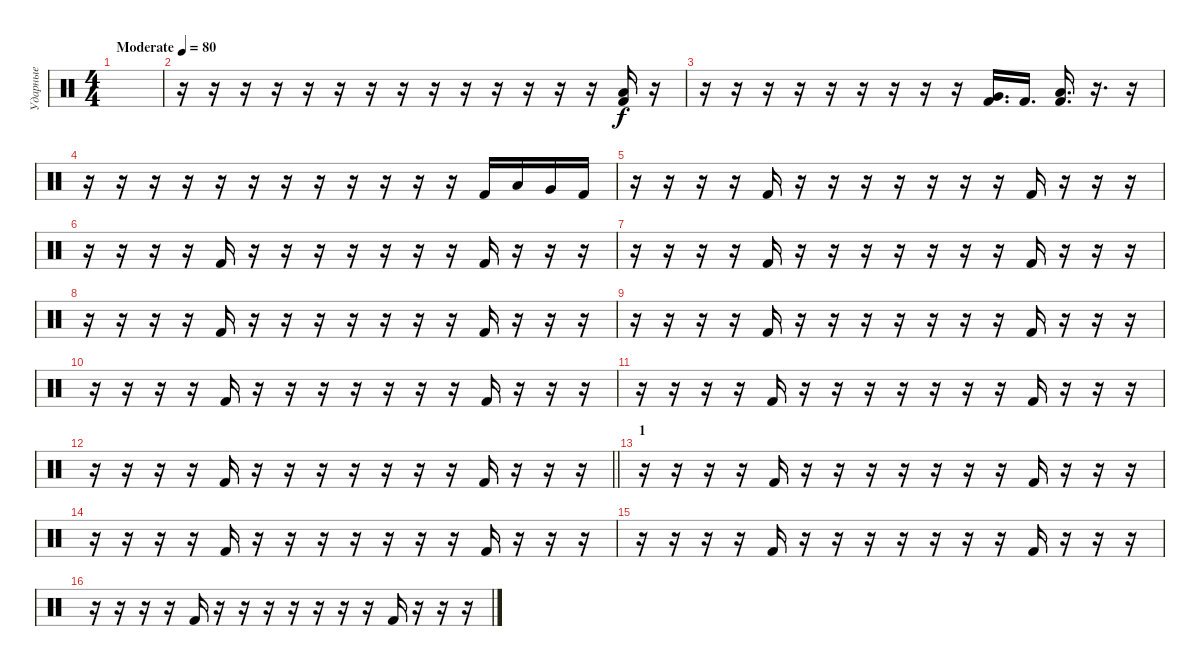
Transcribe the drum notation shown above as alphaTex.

\track ("Ударные" "Ударные") {instrument percussion}
\staff {score}
\articulation defaults
\ts (4 4)
\tempo (80 "Moderate")
\clef neutral
\ks c
|
r.16 r.16 r.16 r.16 r.16 r.16 r.16 r.16 r.16 r.16 r.16 r.16 r.16 r.16 ("Kick (hit) 2" "Low Floor Tom (hit)").16 r.16 |
r.16 r.16 r.16 r.16 r.16 r.16 r.16 r.16 r.16 ("Kick (hit) 2" "Very Low Tom (hit)").16{d} "Kick (hit) 2".16{d} ("Kick (hit) 2" "Low Floor Tom (hit)").16{d} r.16{d} r.16 |
r.16 r.16 r.16 r.16 r.16 r.16 r.16 r.16 r.16 r.16 r.16 r.16 "Kick (hit) 2".16 "Low Floor Tom (hit)".16 "Very Low Tom (hit)".16 "Kick (hit) 2".16 |
r.16 r.16 r.16 r.16 "Kick (hit) 2".16 r.16 r.16 r.16 r.16 r.16 r.16 r.16 "Kick (hit) 2".16 r.16 r.16 r.16 |
r.16 r.16 r.16 r.16 "Kick (hit) 2".16 r.16 r.16 r.16 r.16 r.16 r.16 r.16 "Kick (hit) 2".16 r.16 r.16 r.16 |
r.16 r.16 r.16 r.16 "Kick (hit) 2".16 r.16 r.16 r.16 r.16 r.16 r.16 r.16 "Kick (hit) 2".16 r.16 r.16 r.16 |
r.16 r.16 r.16 r.16 "Kick (hit) 2".16 r.16 r.16 r.16 r.16 r.16 r.16 r.16 "Kick (hit) 2".16 r.16 r.16 r.16 |
r.16 r.16 r.16 r.16 "Kick (hit) 2".16 r.16 r.16 r.16 r.16 r.16 r.16 r.16 "Kick (hit) 2".16 r.16 r.16 r.16 |
r.16 r.16 r.16 r.16 "Kick (hit) 2".16 r.16 r.16 r.16 r.16 r.16 r.16 r.16 "Kick (hit) 2".16 r.16 r.16 r.16 |
r.16 r.16 r.16 r.16 "Kick (hit) 2".16 r.16 r.16 r.16 r.16 r.16 r.16 r.16 "Kick (hit) 2".16 r.16 r.16 r.16 |
\barLineRight lightlight
r.16 r.16 r.16 r.16 "Kick (hit) 2".16 r.16 r.16 r.16 r.16 r.16 r.16 r.16 "Kick (hit) 2".16 r.16 r.16 r.16 |
\section ("" "1")
r.16 r.16 r.16 r.16 "Kick (hit) 2".16 r.16 r.16 r.16 r.16 r.16 r.16 r.16 "Kick (hit) 2".16 r.16 r.16 r.16 |
r.16 r.16 r.16 r.16 "Kick (hit) 2".16 r.16 r.16 r.16 r.16 r.16 r.16 r.16 "Kick (hit) 2".16 r.16 r.16 r.16 |
r.16 r.16 r.16 r.16 "Kick (hit) 2".16 r.16 r.16 r.16 r.16 r.16 r.16 r.16 "Kick (hit) 2".16 r.16 r.16 r.16 |
r.16 r.16 r.16 r.16 "Kick (hit) 2".16 r.16 r.16 r.16 r.16 r.16 r.16 r.16 "Kick (hit) 2".16 r.16 r.16 r.16
